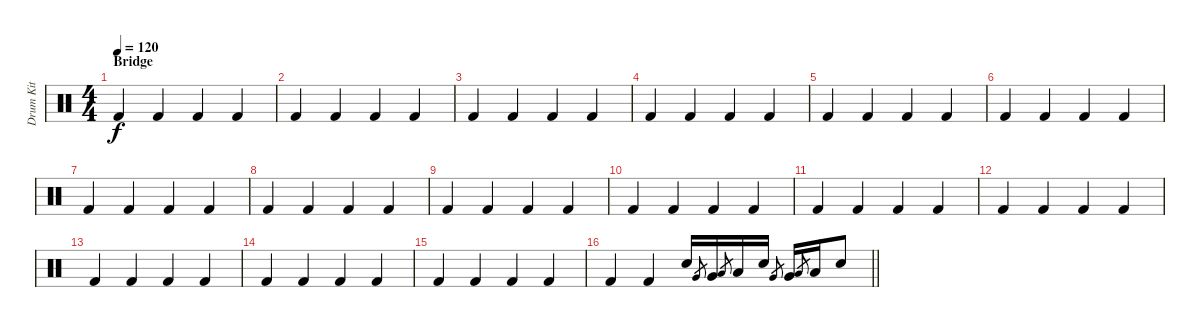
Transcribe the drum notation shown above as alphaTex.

\track ("Drum Kit" "Drum Kit") {instrument percussion}
\staff {score}
\articulation defaults
\ts (4 4)
\section ("" "Bridge")
\tempo 120
\clef neutral
\ks c "Kick (hit) 2".4{dy f} "Kick (hit) 2".4 "Kick (hit) 2".4 "Kick (hit) 2".4
|
"Kick (hit) 2".4 "Kick (hit) 2".4 "Kick (hit) 2".4 "Kick (hit) 2".4 |
"Kick (hit) 2".4 "Kick (hit) 2".4 "Kick (hit) 2".4 "Kick (hit) 2".4 |
"Kick (hit) 2".4 "Kick (hit) 2".4 "Kick (hit) 2".4 "Kick (hit) 2".4 |
"Kick (hit) 2".4 "Kick (hit) 2".4 "Kick (hit) 2".4 "Kick (hit) 2".4 |
"Kick (hit) 2".4 "Kick (hit) 2".4 "Kick (hit) 2".4 "Kick (hit) 2".4 |
"Kick (hit) 2".4 "Kick (hit) 2".4 "Kick (hit) 2".4 "Kick (hit) 2".4 |
"Kick (hit) 2".4 "Kick (hit) 2".4 "Kick (hit) 2".4 "Kick (hit) 2".4 |
"Kick (hit) 2".4 "Kick (hit) 2".4 "Kick (hit) 2".4 "Kick (hit) 2".4 |
"Kick (hit) 2".4 "Kick (hit) 2".4 "Kick (hit) 2".4 "Kick (hit) 2".4 |
"Kick (hit) 2".4 "Kick (hit) 2".4 "Kick (hit) 2".4 "Kick (hit) 2".4 |
"Kick (hit) 2".4 "Kick (hit) 2".4 "Kick (hit) 2".4 "Kick (hit) 2".4 |
"Kick (hit) 2".4 "Kick (hit) 2".4 "Kick (hit) 2".4 "Kick (hit) 2".4 |
"Kick (hit) 2".4 "Kick (hit) 2".4 "Kick (hit) 2".4 "Kick (hit) 2".4 |
"Kick (hit) 2".4 "Kick (hit) 2".4 "Kick (hit) 2".4 "Kick (hit) 2".4 |
\barLineRight lightlight "Kick (hit) 2".4 "Kick (hit) 2".4 "Electric Snare (hit)".16 "Very Low Tom (hit)".8{gr} "Very Low Tom (hit)".16 "Low Floor Tom (hit)".8{gr} "Low Floor Tom (hit)".16 "Electric Snare (hit)".16 "Very Low Tom (hit)".8{gr} "Very Low Tom (hit)".16 "Low Floor Tom (hit)".8{gr} "Low Floor Tom (hit)".16 "Electric Snare (hit)".8
